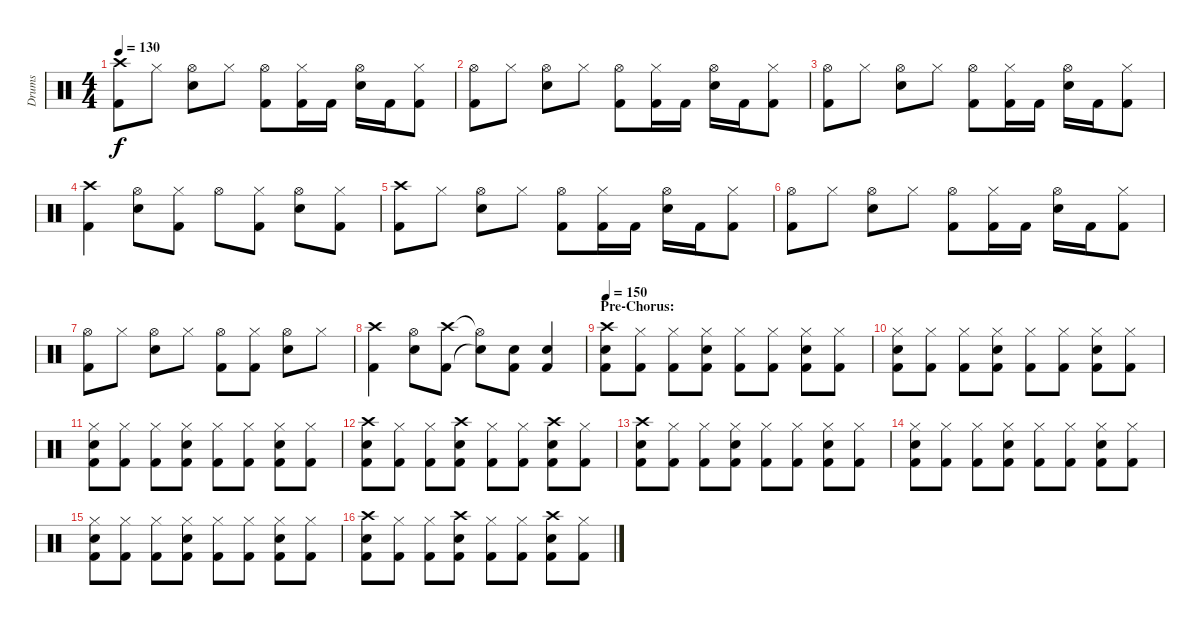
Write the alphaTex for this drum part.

\track ("Drums" "Drums") {instrument percussion}
\staff {score}
\articulation defaults
\ts (4 4)
\tempo 130
\clef neutral
\ks c
("Crash high (hit)" "Kick (hit) 2").8{dy f} "Hi-Hat (closed)".8 ("Hi-Hat (open)" "Electric Snare (hit)").8 "Hi-Hat (closed)".8 ("Hi-Hat (open)" "Kick (hit) 2").8 ("Hi-Hat (closed)" "Kick (hit) 2").16 "Kick (hit) 2".16 ("Hi-Hat (open)" "Electric Snare (hit)").16 "Kick (hit) 2".16 ("Hi-Hat (closed)" "Kick (hit) 2").8 |
("Hi-Hat (open)" "Kick (hit) 2").8 "Hi-Hat (closed)".8 ("Hi-Hat (open)" "Electric Snare (hit)").8 "Hi-Hat (closed)".8 ("Hi-Hat (open)" "Kick (hit) 2").8 ("Hi-Hat (closed)" "Kick (hit) 2").16 "Kick (hit) 2".16 ("Hi-Hat (open)" "Electric Snare (hit)").16 "Kick (hit) 2".16 ("Hi-Hat (closed)" "Kick (hit) 2").8 |
("Hi-Hat (open)" "Kick (hit) 2").8 "Hi-Hat (closed)".8 ("Hi-Hat (open)" "Electric Snare (hit)").8 "Hi-Hat (closed)".8 ("Hi-Hat (open)" "Kick (hit) 2").8 ("Hi-Hat (closed)" "Kick (hit) 2").16 "Kick (hit) 2".16 ("Hi-Hat (open)" "Electric Snare (hit)").16 "Kick (hit) 2".16 ("Hi-Hat (closed)" "Kick (hit) 2").8 |
("Crash high (hit)" "Kick (hit) 2").4 ("Hi-Hat (open)" "Electric Snare (hit)").8 ("Hi-Hat (closed)" "Kick (hit) 2").8 "Hi-Hat (open)".8 ("Hi-Hat (closed)" "Kick (hit) 2").8 ("Hi-Hat (open)" "Electric Snare (hit)").8 ("Hi-Hat (closed)" "Kick (hit) 2").8 |
("Crash high (hit)" "Kick (hit) 2").8 "Hi-Hat (closed)".8 ("Hi-Hat (open)" "Electric Snare (hit)").8 "Hi-Hat (closed)".8 ("Hi-Hat (open)" "Kick (hit) 2").8 ("Hi-Hat (closed)" "Kick (hit) 2").16 "Kick (hit) 2".16 ("Hi-Hat (open)" "Electric Snare (hit)").16 "Kick (hit) 2".16 ("Hi-Hat (closed)" "Kick (hit) 2").8 |
("Hi-Hat (open)" "Kick (hit) 2").8 "Hi-Hat (closed)".8 ("Hi-Hat (open)" "Electric Snare (hit)").8 "Hi-Hat (closed)".8 ("Hi-Hat (open)" "Kick (hit) 2").8 ("Hi-Hat (closed)" "Kick (hit) 2").16 "Kick (hit) 2".16 ("Hi-Hat (open)" "Electric Snare (hit)").16 "Kick (hit) 2".16 ("Hi-Hat (closed)" "Kick (hit) 2").8 |
("Hi-Hat (open)" "Kick (hit) 2").8 "Hi-Hat (closed)".8 ("Hi-Hat (open)" "Electric Snare (hit)").8 "Hi-Hat (closed)".8 ("Hi-Hat (open)" "Kick (hit) 2").8 ("Hi-Hat (closed)" "Kick (hit) 2").8 ("Hi-Hat (open)" "Electric Snare (hit)").8 "Hi-Hat (closed)".8 |
("Crash high (hit)" "Kick (hit) 2").4 ("Hi-Hat (open)" "Electric Snare (hit)").8 ("Crash high (hit)" "Kick (hit) 2").8 ("Hi-Hat (open)"{t} "Snare (hit)"{t}).8 ("Electric Snare (hit)" "Kick (hit) 2").8 ("Electric Snare (hit)" "Kick (hit) 2").4 |
\section ("" "Pre-Chorus:")
\tempo 150
("Crash high (hit)" "Electric Snare (hit)" "Kick (hit) 2").8 ("Hi-Hat (closed)" "Kick (hit) 2").8 ("Hi-Hat (closed)" "Kick (hit) 2").8 ("Hi-Hat (closed)" "Electric Snare (hit)" "Kick (hit) 2").8 ("Hi-Hat (closed)" "Kick (hit) 2").8 ("Hi-Hat (closed)" "Kick (hit) 2").8 ("Hi-Hat (closed)" "Electric Snare (hit)" "Kick (hit) 2").8 ("Hi-Hat (closed)" "Kick (hit) 2").8 |
("Hi-Hat (closed)" "Electric Snare (hit)" "Kick (hit) 2").8 ("Hi-Hat (closed)" "Kick (hit) 2").8 ("Hi-Hat (closed)" "Kick (hit) 2").8 ("Hi-Hat (closed)" "Electric Snare (hit)" "Kick (hit) 2").8 ("Hi-Hat (closed)" "Kick (hit) 2").8 ("Hi-Hat (closed)" "Kick (hit) 2").8 ("Hi-Hat (closed)" "Electric Snare (hit)" "Kick (hit) 2").8 ("Hi-Hat (closed)" "Kick (hit) 2").8 |
("Hi-Hat (closed)" "Electric Snare (hit)" "Kick (hit) 2").8 ("Hi-Hat (closed)" "Kick (hit) 2").8 ("Hi-Hat (closed)" "Kick (hit) 2").8 ("Hi-Hat (closed)" "Electric Snare (hit)" "Kick (hit) 2").8 ("Hi-Hat (closed)" "Kick (hit) 2").8 ("Hi-Hat (closed)" "Kick (hit) 2").8 ("Hi-Hat (closed)" "Electric Snare (hit)" "Kick (hit) 2").8 ("Hi-Hat (closed)" "Kick (hit) 2").8 |
("Crash high (hit)" "Electric Snare (hit)" "Kick (hit) 2").8 ("Hi-Hat (closed)" "Kick (hit) 2").8 ("Hi-Hat (closed)" "Kick (hit) 2").8 ("Crash high (hit)" "Electric Snare (hit)" "Kick (hit) 2").8 ("Hi-Hat (closed)" "Kick (hit) 2").8 ("Hi-Hat (closed)" "Kick (hit) 2").8 ("Crash high (hit)" "Electric Snare (hit)" "Kick (hit) 2").8 ("Hi-Hat (closed)" "Kick (hit) 2").8 |
("Crash high (hit)" "Electric Snare (hit)" "Kick (hit) 2").8 ("Hi-Hat (closed)" "Kick (hit) 2").8 ("Hi-Hat (closed)" "Kick (hit) 2").8 ("Hi-Hat (closed)" "Electric Snare (hit)" "Kick (hit) 2").8 ("Hi-Hat (closed)" "Kick (hit) 2").8 ("Hi-Hat (closed)" "Kick (hit) 2").8 ("Hi-Hat (closed)" "Electric Snare (hit)" "Kick (hit) 2").8 ("Hi-Hat (closed)" "Kick (hit) 2").8 |
("Hi-Hat (closed)" "Electric Snare (hit)" "Kick (hit) 2").8 ("Hi-Hat (closed)" "Kick (hit) 2").8 ("Hi-Hat (closed)" "Kick (hit) 2").8 ("Hi-Hat (closed)" "Electric Snare (hit)" "Kick (hit) 2").8 ("Hi-Hat (closed)" "Kick (hit) 2").8 ("Hi-Hat (closed)" "Kick (hit) 2").8 ("Hi-Hat (closed)" "Electric Snare (hit)" "Kick (hit) 2").8 ("Hi-Hat (closed)" "Kick (hit) 2").8 |
("Hi-Hat (closed)" "Electric Snare (hit)" "Kick (hit) 2").8 ("Hi-Hat (closed)" "Kick (hit) 2").8 ("Hi-Hat (closed)" "Kick (hit) 2").8 ("Hi-Hat (closed)" "Electric Snare (hit)" "Kick (hit) 2").8 ("Hi-Hat (closed)" "Kick (hit) 2").8 ("Hi-Hat (closed)" "Kick (hit) 2").8 ("Hi-Hat (closed)" "Electric Snare (hit)" "Kick (hit) 2").8 ("Hi-Hat (closed)" "Kick (hit) 2").8 |
("Crash high (hit)" "Electric Snare (hit)" "Kick (hit) 2").8 ("Hi-Hat (closed)" "Kick (hit) 2").8 ("Hi-Hat (closed)" "Kick (hit) 2").8 ("Crash high (hit)" "Electric Snare (hit)" "Kick (hit) 2").8 ("Hi-Hat (closed)" "Kick (hit) 2").8 ("Hi-Hat (closed)" "Kick (hit) 2").8 ("Crash high (hit)" "Electric Snare (hit)" "Kick (hit) 2").8 ("Hi-Hat (closed)" "Kick (hit) 2").8
